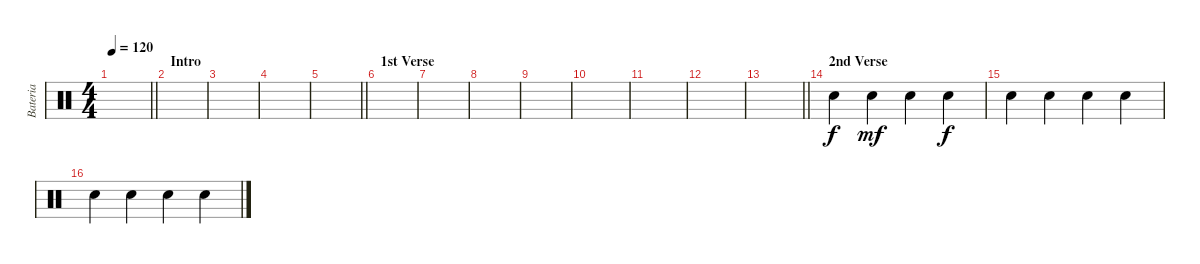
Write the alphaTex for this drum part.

\track ("Bateria" "Bateria") {instrument percussion}
\staff {score}
\articulation defaults
\ts (4 4)
\tempo 120
\clef neutral
\barLineRight lightlight
\ks c
|
\section ("" "Intro")
|
|
|
\barLineRight lightlight
|
\section ("" "1st Verse")
|
|
|
|
|
|
|
\barLineRight lightlight
|
\section ("" "2nd Verse")
"Snare (hit) 2".4 "Snare (hit) 2".4{dy mf} "Snare (hit) 2".4 "Snare (hit) 2".4{dy f} |
"Snare (hit) 2".4 "Snare (hit) 2".4 "Snare (hit) 2".4 "Snare (hit) 2".4 |
"Snare (hit) 2".4 "Snare (hit) 2".4 "Snare (hit) 2".4 "Snare (hit) 2".4
